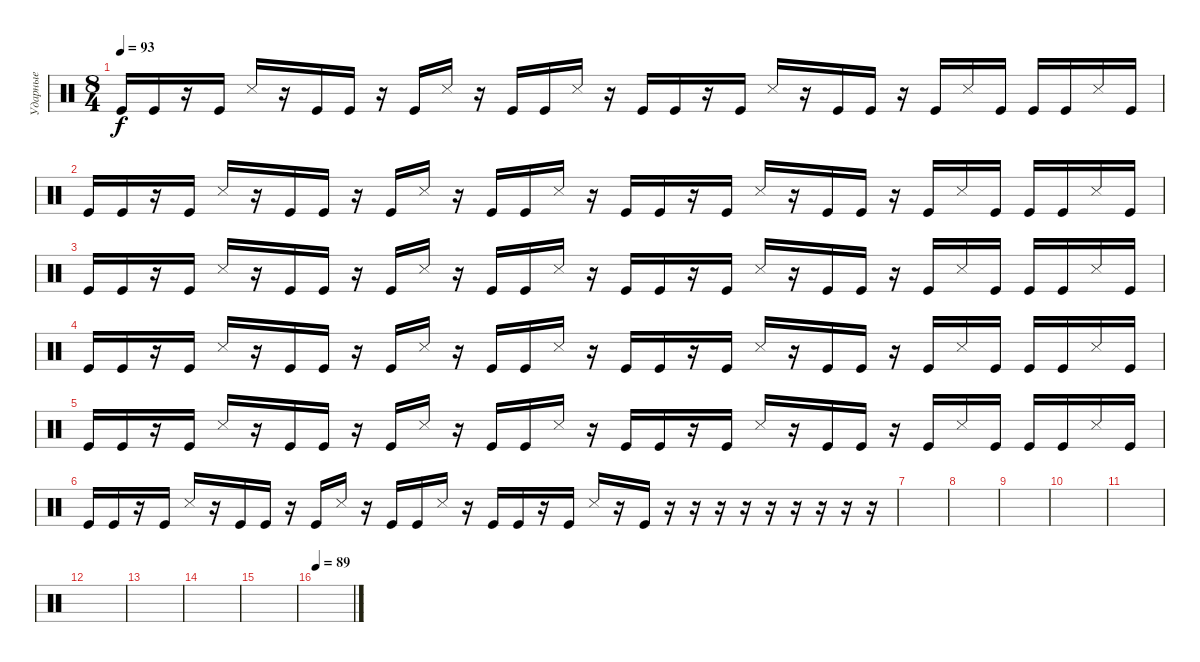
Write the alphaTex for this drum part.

\track ("Ударные" "Ударные") {instrument percussion}
\staff {score}
\articulation defaults
\ts (8 4)
\tempo 93
\clef neutral
\ks c "Kick (hit)".16{dy f} "Kick (hit)".16
r.16 "Kick (hit)".16 "Metronome (hit)".16 r.16 "Kick (hit)".16 "Kick (hit)".16 r.16 "Kick (hit)".16 "Metronome (hit)".16 r.16 "Kick (hit)".16 "Kick (hit)".16 "Metronome (hit)".16 r.16 "Kick (hit)".16 "Kick (hit)".16 r.16 "Kick (hit)".16 "Metronome (hit)".16 r.16 "Kick (hit)".16 "Kick (hit)".16 r.16 "Kick (hit)".16 "Metronome (hit)".16 "Kick (hit)".16 "Kick (hit)".16 "Kick (hit)".16 "Metronome (hit)".16 "Kick (hit)".16 |
"Kick (hit)".16 "Kick (hit)".16 r.16 "Kick (hit)".16 "Metronome (hit)".16 r.16 "Kick (hit)".16 "Kick (hit)".16 r.16 "Kick (hit)".16 "Metronome (hit)".16 r.16 "Kick (hit)".16 "Kick (hit)".16 "Metronome (hit)".16 r.16 "Kick (hit)".16 "Kick (hit)".16 r.16 "Kick (hit)".16 "Metronome (hit)".16 r.16 "Kick (hit)".16 "Kick (hit)".16 r.16 "Kick (hit)".16 "Metronome (hit)".16 "Kick (hit)".16 "Kick (hit)".16 "Kick (hit)".16 "Metronome (hit)".16 "Kick (hit)".16 |
"Kick (hit)".16 "Kick (hit)".16 r.16 "Kick (hit)".16 "Metronome (hit)".16 r.16 "Kick (hit)".16 "Kick (hit)".16 r.16 "Kick (hit)".16 "Metronome (hit)".16 r.16 "Kick (hit)".16 "Kick (hit)".16 "Metronome (hit)".16 r.16 "Kick (hit)".16 "Kick (hit)".16 r.16 "Kick (hit)".16 "Metronome (hit)".16 r.16 "Kick (hit)".16 "Kick (hit)".16 r.16 "Kick (hit)".16 "Metronome (hit)".16 "Kick (hit)".16 "Kick (hit)".16 "Kick (hit)".16 "Metronome (hit)".16 "Kick (hit)".16 |
"Kick (hit)".16 "Kick (hit)".16 r.16 "Kick (hit)".16 "Metronome (hit)".16 r.16 "Kick (hit)".16 "Kick (hit)".16 r.16 "Kick (hit)".16 "Metronome (hit)".16 r.16 "Kick (hit)".16 "Kick (hit)".16 "Metronome (hit)".16 r.16 "Kick (hit)".16 "Kick (hit)".16 r.16 "Kick (hit)".16 "Metronome (hit)".16 r.16 "Kick (hit)".16 "Kick (hit)".16 r.16 "Kick (hit)".16 "Metronome (hit)".16 "Kick (hit)".16 "Kick (hit)".16 "Kick (hit)".16 "Metronome (hit)".16 "Kick (hit)".16 |
"Kick (hit)".16 "Kick (hit)".16 r.16 "Kick (hit)".16 "Metronome (hit)".16 r.16 "Kick (hit)".16 "Kick (hit)".16 r.16 "Kick (hit)".16 "Metronome (hit)".16 r.16 "Kick (hit)".16 "Kick (hit)".16 "Metronome (hit)".16 r.16 "Kick (hit)".16 "Kick (hit)".16 r.16 "Kick (hit)".16 "Metronome (hit)".16 r.16 "Kick (hit)".16 "Kick (hit)".16 r.16 "Kick (hit)".16 "Metronome (hit)".16 "Kick (hit)".16 "Kick (hit)".16 "Kick (hit)".16 "Metronome (hit)".16 "Kick (hit)".16 |
"Kick (hit)".16 "Kick (hit)".16 r.16 "Kick (hit)".16 "Metronome (hit)".16 r.16 "Kick (hit)".16 "Kick (hit)".16 r.16 "Kick (hit)".16 "Metronome (hit)".16 r.16 "Kick (hit)".16 "Kick (hit)".16 "Metronome (hit)".16 r.16 "Kick (hit)".16 "Kick (hit)".16 r.16 "Kick (hit)".16 "Metronome (hit)".16 r.16 "Kick (hit)".16 r.16 r.16 r.16 r.16 r.16 r.16 r.16 r.16 r.16 |
|
|
|
|
|
|
|
|
|
\tempo 89
